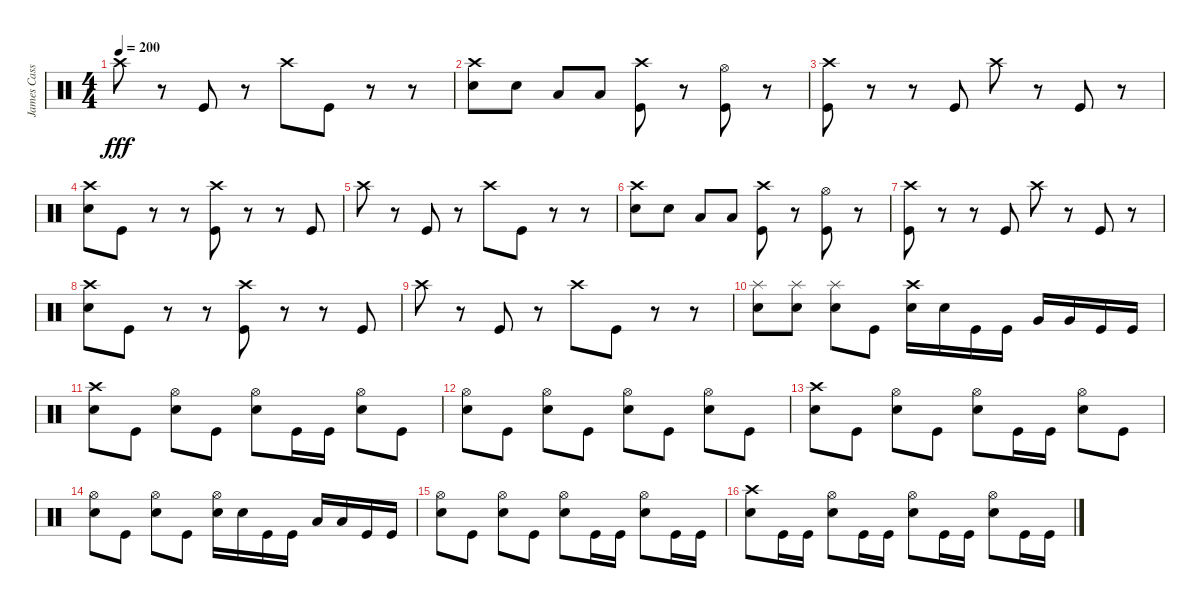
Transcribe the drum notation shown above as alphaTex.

\track ("James Cassells" "James Cass") {instrument percussion}
\staff {score}
\articulation defaults
\ts (4 4)
\tempo 200
\clef neutral
\ks c "Crash high (hit)".8{dy fff}
r.8 "Kick (hit)".8 r.8 "Crash high (hit)".8 "Kick (hit)".8 r.8 r.8 |
("Crash high (hit)" "Electric Snare (hit)").8 "Electric Snare (hit)".8 "Low Tom (hit)".8 "Low Tom (hit)".8 ("Crash high (hit)" "Kick (hit)").8 r.8 ("Hi-Hat (open)" "Kick (hit)").8 r.8 |
("Crash high (hit)" "Kick (hit)").8 r.8 r.8 "Kick (hit)".8 "Crash high (hit)".8 r.8 "Kick (hit)".8 r.8 |
("Crash high (hit)" "Electric Snare (hit)").8 "Kick (hit)".8 r.8 r.8 ("Crash high (hit)" "Kick (hit)").8 r.8 r.8 "Kick (hit)".8 |
"Crash high (hit)".8 r.8 "Kick (hit)".8 r.8 "Crash high (hit)".8 "Kick (hit)".8 r.8 r.8 |
("Crash high (hit)" "Electric Snare (hit)").8 "Electric Snare (hit)".8 "Low Tom (hit)".8 "Low Tom (hit)".8 ("Crash high (hit)" "Kick (hit)").8 r.8 ("Hi-Hat (open)" "Kick (hit)").8 r.8 |
("Crash high (hit)" "Kick (hit)").8 r.8 r.8 "Kick (hit)".8 "Crash high (hit)".8 r.8 "Kick (hit)".8 r.8 |
("Crash high (hit)" "Electric Snare (hit)").8 "Kick (hit)".8 r.8 r.8 ("Crash high (hit)" "Kick (hit)").8 r.8 r.8 "Kick (hit)".8 |
"Crash high (hit)".8 r.8 "Kick (hit)".8 r.8 "Crash high (hit)".8 "Kick (hit)".8 r.8 r.8 |
("Splash (hit)" "Electric Snare (hit)").8 ("Splash (hit)" "Electric Snare (hit)").8 ("Splash (hit)" "Electric Snare (hit)").8 "Kick (hit)".8 ("Crash high (hit)" "Electric Snare (hit)").16 "Electric Snare (hit)".16 "Kick (hit)".16 "Kick (hit)".16 "Very Low Tom (hit)".16 "Very Low Tom (hit)".16 "Kick (hit)".16 "Kick (hit)".16 |
("Crash high (hit)" "Electric Snare (hit)").8 "Kick (hit)".8 ("Hi-Hat (open)" "Electric Snare (hit)").8 "Kick (hit)".8 ("Hi-Hat (open)" "Electric Snare (hit)").8 "Kick (hit)".16 "Kick (hit)".16 ("Hi-Hat (open)" "Electric Snare (hit)").8 "Kick (hit)".8 |
("Hi-Hat (open)" "Electric Snare (hit)").8 "Kick (hit)".8 ("Hi-Hat (open)" "Electric Snare (hit)").8 "Kick (hit)".8 ("Hi-Hat (open)" "Electric Snare (hit)").8 "Kick (hit)".8 ("Hi-Hat (open)" "Electric Snare (hit)").8 "Kick (hit)".8 |
("Crash high (hit)" "Electric Snare (hit)").8 "Kick (hit)".8 ("Hi-Hat (open)" "Electric Snare (hit)").8 "Kick (hit)".8 ("Hi-Hat (open)" "Electric Snare (hit)").8 "Kick (hit)".16 "Kick (hit)".16 ("Hi-Hat (open)" "Electric Snare (hit)").8 "Kick (hit)".8 |
("Hi-Hat (open)" "Electric Snare (hit)").8 "Kick (hit)".8 ("Hi-Hat (open)" "Electric Snare (hit)").8 "Kick (hit)".8 ("Hi-Hat (open)" "Electric Snare (hit)").16 "Electric Snare (hit)".16 "Kick (hit)".16 "Kick (hit)".16 "Low Tom (hit)".16 "Low Tom (hit)".16 "Kick (hit)".16 "Kick (hit)".16 |
("Hi-Hat (open)" "Electric Snare (hit)").8 "Kick (hit)".8 ("Hi-Hat (open)" "Electric Snare (hit)").8 "Kick (hit)".8 ("Hi-Hat (open)" "Electric Snare (hit)").8 "Kick (hit)".16 "Kick (hit)".16 ("Hi-Hat (open)" "Electric Snare (hit)").8 "Kick (hit)".16 "Kick (hit)".16 |
("Crash high (hit)" "Electric Snare (hit)").8 "Kick (hit)".16 "Kick (hit)".16 ("Hi-Hat (open)" "Electric Snare (hit)").8 "Kick (hit)".16 "Kick (hit)".16 ("Hi-Hat (open)" "Electric Snare (hit)").8 "Kick (hit)".16 "Kick (hit)".16 ("Hi-Hat (open)" "Electric Snare (hit)").8 "Kick (hit)".16 "Kick (hit)".16
